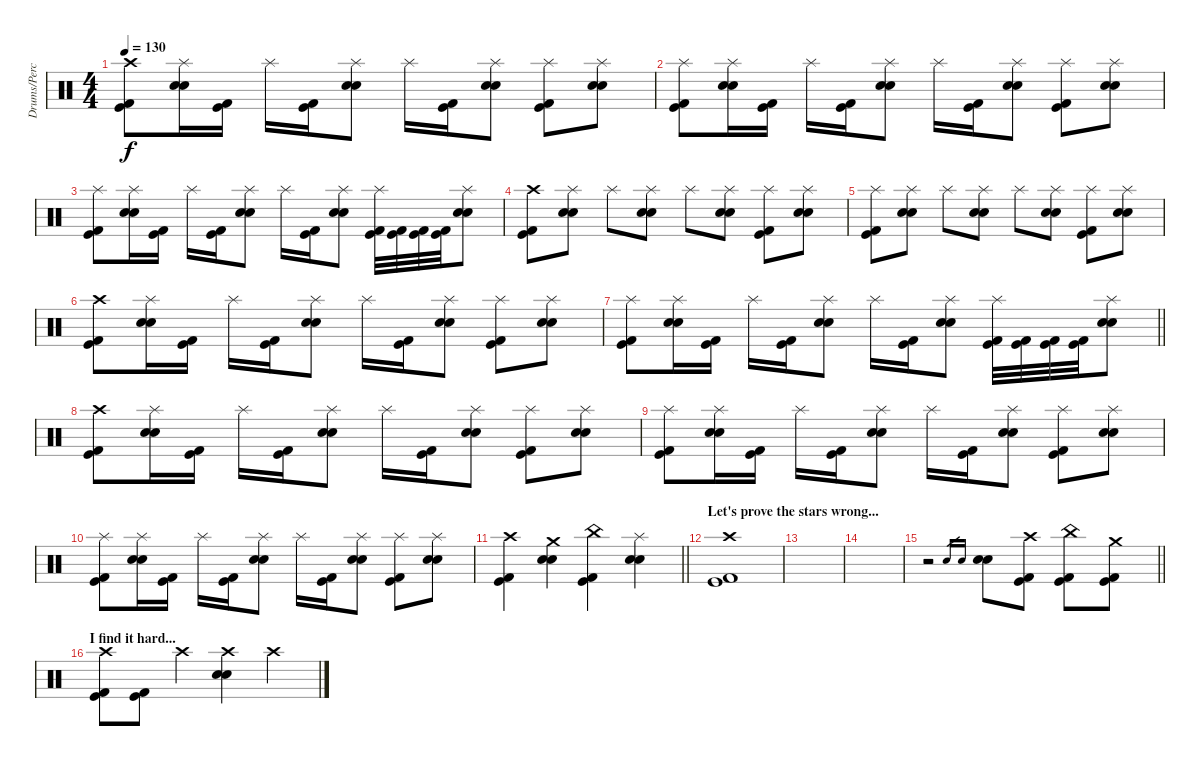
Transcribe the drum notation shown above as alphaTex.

\track ("Drums/Percussion" "Drums/Perc") {instrument percussion}
\staff {score}
\articulation defaults
\ts (4 4)
\tempo 130
\clef neutral
\ks c
("Crash high (hit)" "Kick (hit)" "Kick (hit) 2").8{dy f} ("Splash (hit)" "Electric Snare (hit)" "Snare (hit) 2").16 ("Kick (hit)" "Kick (hit) 2").16 "Splash (hit)".16 ("Kick (hit)" "Kick (hit) 2").16 ("Splash (hit)" "Electric Snare (hit)" "Snare (hit) 2").8 "Splash (hit)".16 ("Kick (hit)" "Kick (hit) 2").16 ("Splash (hit)" "Electric Snare (hit)" "Snare (hit) 2").8 ("Splash (hit)" "Kick (hit)" "Kick (hit) 2").8 ("Splash (hit)" "Electric Snare (hit)" "Snare (hit) 2").8 |
("Splash (hit)" "Kick (hit)" "Kick (hit) 2").8 ("Splash (hit)" "Electric Snare (hit)" "Snare (hit) 2").16 ("Kick (hit)" "Kick (hit) 2").16 "Splash (hit)".16 ("Kick (hit)" "Kick (hit) 2").16 ("Splash (hit)" "Electric Snare (hit)" "Snare (hit) 2").8 "Splash (hit)".16 ("Kick (hit)" "Kick (hit) 2").16 ("Splash (hit)" "Electric Snare (hit)" "Snare (hit) 2").8 ("Splash (hit)" "Kick (hit)" "Kick (hit) 2").8 ("Splash (hit)" "Electric Snare (hit)" "Snare (hit) 2").8 |
("Splash (hit)" "Kick (hit)" "Kick (hit) 2").8 ("Splash (hit)" "Electric Snare (hit)" "Snare (hit) 2").16 ("Kick (hit)" "Kick (hit) 2").16 "Splash (hit)".16 ("Kick (hit)" "Kick (hit) 2").16 ("Splash (hit)" "Electric Snare (hit)" "Snare (hit) 2").8 "Splash (hit)".16 ("Kick (hit)" "Kick (hit) 2").16 ("Splash (hit)" "Electric Snare (hit)" "Snare (hit) 2").8 ("Splash (hit)" "Kick (hit)" "Kick (hit) 2").32 ("Kick (hit)" "Kick (hit) 2").32 ("Kick (hit)" "Kick (hit) 2").32 ("Kick (hit)" "Kick (hit) 2").32 ("Splash (hit)" "Electric Snare (hit)" "Snare (hit) 2").8 |
("Crash high (hit)" "Kick (hit)" "Kick (hit) 2").8 ("Splash (hit)" "Electric Snare (hit)" "Snare (hit) 2").8 "Splash (hit)".8 ("Splash (hit)" "Electric Snare (hit)" "Snare (hit) 2").8 "Splash (hit)".8 ("Splash (hit)" "Electric Snare (hit)" "Snare (hit) 2").8 ("Splash (hit)" "Kick (hit)" "Kick (hit) 2").8 ("Splash (hit)" "Electric Snare (hit)" "Snare (hit) 2").8 |
("Splash (hit)" "Kick (hit)" "Kick (hit) 2").8 ("Splash (hit)" "Electric Snare (hit)" "Snare (hit) 2").8 "Splash (hit)".8 ("Splash (hit)" "Electric Snare (hit)" "Snare (hit) 2").8 "Splash (hit)".8 ("Splash (hit)" "Electric Snare (hit)" "Snare (hit) 2").8 ("Splash (hit)" "Kick (hit)" "Kick (hit) 2").8 ("Splash (hit)" "Electric Snare (hit)" "Snare (hit) 2").8 |
("Crash high (hit)" "Kick (hit)" "Kick (hit) 2").8 ("Splash (hit)" "Electric Snare (hit)" "Snare (hit) 2").16 ("Kick (hit)" "Kick (hit) 2").16 "Splash (hit)".16 ("Kick (hit)" "Kick (hit) 2").16 ("Splash (hit)" "Electric Snare (hit)" "Snare (hit) 2").8 "Splash (hit)".16 ("Kick (hit)" "Kick (hit) 2").16 ("Splash (hit)" "Electric Snare (hit)" "Snare (hit) 2").8 ("Splash (hit)" "Kick (hit)" "Kick (hit) 2").8 ("Splash (hit)" "Electric Snare (hit)" "Snare (hit) 2").8 |
\barLineRight lightlight
("Splash (hit)" "Kick (hit)" "Kick (hit) 2").8 ("Splash (hit)" "Electric Snare (hit)" "Snare (hit) 2").16 ("Kick (hit)" "Kick (hit) 2").16 "Splash (hit)".16 ("Kick (hit)" "Kick (hit) 2").16 ("Splash (hit)" "Electric Snare (hit)" "Snare (hit) 2").8 "Splash (hit)".16 ("Kick (hit)" "Kick (hit) 2").16 ("Splash (hit)" "Electric Snare (hit)" "Snare (hit) 2").8 ("Splash (hit)" "Kick (hit)" "Kick (hit) 2").32 ("Kick (hit)" "Kick (hit) 2").32 ("Kick (hit)" "Kick (hit) 2").32 ("Kick (hit)" "Kick (hit) 2").32 ("Splash (hit)" "Electric Snare (hit)" "Snare (hit) 2").8 |
("Crash high (hit)" "Kick (hit)" "Kick (hit) 2").8 ("Splash (hit)" "Electric Snare (hit)" "Snare (hit) 2").16 ("Kick (hit)" "Kick (hit) 2").16 "Splash (hit)".16 ("Kick (hit)" "Kick (hit) 2").16 ("Splash (hit)" "Electric Snare (hit)" "Snare (hit) 2").8 "Splash (hit)".16 ("Kick (hit)" "Kick (hit) 2").16 ("Splash (hit)" "Electric Snare (hit)" "Snare (hit) 2").8 ("Splash (hit)" "Kick (hit)" "Kick (hit) 2").8 ("Splash (hit)" "Electric Snare (hit)" "Snare (hit) 2").8 |
("Splash (hit)" "Kick (hit)" "Kick (hit) 2").8 ("Splash (hit)" "Electric Snare (hit)" "Snare (hit) 2").16 ("Kick (hit)" "Kick (hit) 2").16 "Splash (hit)".16 ("Kick (hit)" "Kick (hit) 2").16 ("Splash (hit)" "Electric Snare (hit)" "Snare (hit) 2").8 "Splash (hit)".16 ("Kick (hit)" "Kick (hit) 2").16 ("Splash (hit)" "Electric Snare (hit)" "Snare (hit) 2").8 ("Splash (hit)" "Kick (hit)" "Kick (hit) 2").8 ("Splash (hit)" "Electric Snare (hit)" "Snare (hit) 2").8 |
("Splash (hit)" "Kick (hit)" "Kick (hit) 2").8 ("Splash (hit)" "Electric Snare (hit)" "Snare (hit) 2").16 ("Kick (hit)" "Kick (hit) 2").16 "Splash (hit)".16 ("Kick (hit)" "Kick (hit) 2").16 ("Splash (hit)" "Electric Snare (hit)" "Snare (hit) 2").8 "Splash (hit)".16 ("Kick (hit)" "Kick (hit) 2").16 ("Splash (hit)" "Electric Snare (hit)" "Snare (hit) 2").8 ("Splash (hit)" "Kick (hit)" "Kick (hit) 2").8 ("Splash (hit)" "Electric Snare (hit)" "Snare (hit) 2").8 |
\barLineRight lightlight
("Crash high (hit)" "Kick (hit)" "Kick (hit) 2").4 ("Crash medium (hit)" "Electric Snare (hit)" "Snare (hit) 2").4 ("China (hit)" "Kick (hit)" "Kick (hit) 2").4 ("Splash (hit)" "Electric Snare (hit)" "Snare (hit) 2").4 |
\section ("" "Let's prove the stars wrong...")
("Crash high (hit)" "Kick (hit)" "Kick (hit) 2").1 |
|
|
\barLineRight lightlight
r.2 "Electric Snare (hit)".16{gr} "Snare (hit) 2".16{gr} ("Electric Snare (hit)" "Snare (hit) 2").8 ("Crash high (hit)" "Kick (hit)" "Kick (hit) 2").8 ("China (hit)" "Kick (hit)" "Kick (hit) 2").8 ("Crash medium (hit)" "Kick (hit)" "Kick (hit) 2").8 |
\section ("" "I find it hard...")
("Crash high (hit)" "Kick (hit)" "Kick (hit) 2").8 ("Kick (hit)" "Kick (hit) 2").8 "Crash high (hit)".4 ("Crash high (hit)" "Electric Snare (hit)" "Snare (hit) 2").4 "Crash high (hit)".4
